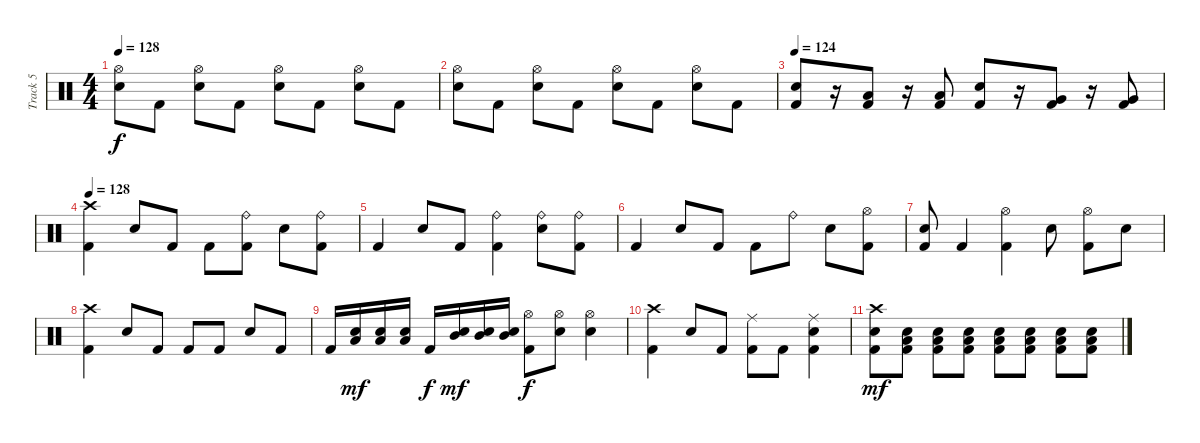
\track ("Track 5" "Track 5") {instrument percussion}
\staff {score}
\articulation defaults
\ts (4 4)
\tempo 128
\clef neutral
\ks c
("Hi-Hat (open)" "Electric Snare (hit)").8{dy f} "Kick (hit) 2".8 ("Hi-Hat (open)" "Electric Snare (hit)").8 "Kick (hit) 2".8 ("Hi-Hat (open)" "Electric Snare (hit)").8 "Kick (hit) 2".8 ("Hi-Hat (open)" "Electric Snare (hit)").8 "Kick (hit) 2".8 |
("Hi-Hat (open)" "Electric Snare (hit)").8 "Kick (hit) 2".8 ("Hi-Hat (open)" "Electric Snare (hit)").8 "Kick (hit) 2".8 ("Hi-Hat (open)" "Electric Snare (hit)").8 "Kick (hit) 2".8 ("Hi-Hat (open)" "Electric Snare (hit)").8 "Kick (hit) 2".8 |
\tempo 124
("Electric Snare (hit)" "Kick (hit) 2").8 r.16 ("Low Tom (hit)" "Kick (hit) 2").8 r.16 ("Low Tom (hit)" "Kick (hit) 2").8 ("Electric Snare (hit)" "Kick (hit) 2").8 r.16 ("Very Low Tom (hit)" "Kick (hit) 2").8 r.16 ("Very Low Tom (hit)" "Kick (hit) 2").8 |
\tempo 128
("Crash high (hit)" "Kick (hit) 2").4 "Electric Snare (hit)".8 "Kick (hit) 2".8 "Kick (hit) 2".8 ("Ride (bell)" "Kick (hit) 2").8 "Electric Snare (hit)".8 ("Ride (bell)" "Kick (hit) 2").8 |
"Kick (hit) 2".4 "Electric Snare (hit)".8 "Kick (hit) 2".8 ("Ride (bell)" "Kick (hit) 2").4 ("Ride (bell)" "Electric Snare (hit)").8 ("Ride (bell)" "Kick (hit) 2").8 |
"Kick (hit) 2".4 "Electric Snare (hit)".8 "Kick (hit) 2".8 "Kick (hit) 2".8 "Ride (bell)".8 "Electric Snare (hit)".8 ("Hi-Hat (open)" "Kick (hit) 2").8 |
("Electric Snare (hit)" "Kick (hit) 2").8 "Kick (hit) 2".4 ("Hi-Hat (open)" "Kick (hit) 2").4 "Electric Snare (hit)".8 ("Hi-Hat (open)" "Kick (hit) 2").8 "Electric Snare (hit)".8 |
("Crash high (hit)" "Kick (hit) 2").4 "Electric Snare (hit)".8 "Kick (hit) 2".8 "Kick (hit) 2".8 "Kick (hit) 2".8 "Electric Snare (hit)".8 "Kick (hit) 2".8 |
"Kick (hit) 2".16 ("Electric Snare (hit)" "Low Tom (hit)").16{dy mf} ("Electric Snare (hit)" "Low Tom (hit)").16 ("Electric Snare (hit)" "Low Tom (hit)").16 "Kick (hit) 2".16{dy f} ("Electric Snare (hit)" "Mid Tom (hit)").16{dy mf} ("Electric Snare (hit)" "Mid Tom (hit)").16 ("Electric Snare (hit)" "Mid Tom (hit)").16 ("Hi-Hat (open)" "Kick (hit) 2").8{dy f} ("Hi-Hat (open)" "Electric Snare (hit)").8 ("Hi-Hat (open)" "Electric Snare (hit)").4 |
("Crash high (hit)" "Kick (hit) 2").4 "Electric Snare (hit)".8 "Kick (hit) 2".8 ("Ride (middle)" "Kick (hit) 2").8 "Kick (hit) 2".8 ("Ride (middle)" "Electric Snare (hit)" "Kick (hit) 2").4 |
("Crash high (hit)" "Electric Snare (hit)" "Kick (hit) 2").8{dy mf} ("Electric Snare (hit)" "Low Tom (hit)" "Kick (hit) 2").8 ("Electric Snare (hit)" "Low Tom (hit)" "Kick (hit) 2").8 ("Electric Snare (hit)" "Low Tom (hit)" "Kick (hit) 2").8 ("Electric Snare (hit)" "Low Tom (hit)" "Kick (hit) 2").8 ("Electric Snare (hit)" "Low Tom (hit)" "Kick (hit) 2").8 ("Electric Snare (hit)" "Low Tom (hit)" "Kick (hit) 2").8 ("Electric Snare (hit)" "Low Tom (hit)" "Kick (hit) 2").8
